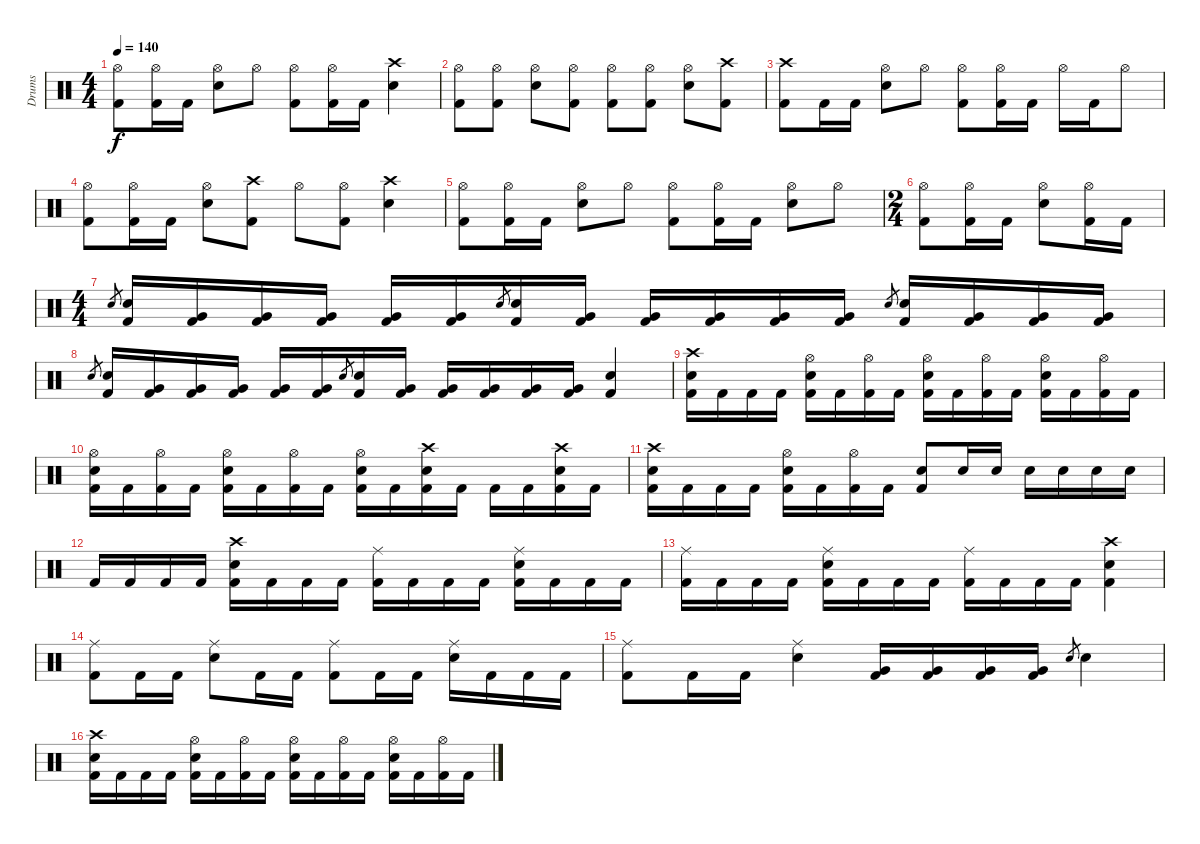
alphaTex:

\track ("Drums" "Drums") {instrument percussion}
\staff {score}
\articulation defaults
\ts (4 4)
\tempo 140
\clef neutral
\ks c
("Hi-Hat (open)" "Kick (hit) 2").8{dy f} ("Hi-Hat (open)" "Kick (hit) 2").16 "Kick (hit) 2".16 ("Hi-Hat (open)" "Electric Snare (hit)").8 "Hi-Hat (open)".8 ("Hi-Hat (open)" "Kick (hit) 2").8 ("Hi-Hat (open)" "Kick (hit) 2").16 "Kick (hit) 2".16 ("Crash high (hit)" "Electric Snare (hit)").4 |
("Hi-Hat (open)" "Kick (hit) 2").8 ("Hi-Hat (open)" "Kick (hit) 2").8 ("Hi-Hat (open)" "Electric Snare (hit)").8 ("Hi-Hat (open)" "Kick (hit) 2").8 ("Hi-Hat (open)" "Kick (hit) 2").8 ("Hi-Hat (open)" "Kick (hit) 2").8 ("Hi-Hat (open)" "Electric Snare (hit)").8 ("Crash high (hit)" "Kick (hit) 2").8 |
("Crash high (hit)" "Kick (hit) 2").8 "Kick (hit) 2".16 "Kick (hit) 2".16 ("Hi-Hat (open)" "Electric Snare (hit)").8 "Hi-Hat (open)".8 ("Hi-Hat (open)" "Kick (hit) 2").8 ("Hi-Hat (open)" "Kick (hit) 2").16 "Kick (hit) 2".16 "Hi-Hat (open)".16 "Kick (hit) 2".16 "Hi-Hat (open)".8 |
("Hi-Hat (open)" "Kick (hit) 2").8 ("Hi-Hat (open)" "Kick (hit) 2").16 "Kick (hit) 2".16 ("Hi-Hat (open)" "Electric Snare (hit)").8 ("Crash high (hit)" "Kick (hit) 2").8 "Hi-Hat (open)".8 ("Hi-Hat (open)" "Kick (hit) 2").8 ("Crash high (hit)" "Electric Snare (hit)").4 |
("Hi-Hat (open)" "Kick (hit) 2").8 ("Hi-Hat (open)" "Kick (hit) 2").16 "Kick (hit) 2".16 ("Hi-Hat (open)" "Electric Snare (hit)").8 "Hi-Hat (open)".8 ("Hi-Hat (open)" "Kick (hit) 2").8 ("Hi-Hat (open)" "Kick (hit) 2").16 "Kick (hit) 2".16 ("Hi-Hat (open)" "Electric Snare (hit)").8 "Hi-Hat (open)".8 |
\ts (2 4)
("Hi-Hat (open)" "Kick (hit) 2").8 ("Hi-Hat (open)" "Kick (hit) 2").16 "Kick (hit) 2".16 ("Hi-Hat (open)" "Electric Snare (hit)").8 ("Hi-Hat (open)" "Kick (hit) 2").16 "Kick (hit) 2".16 |
\ts (4 4)
"Electric Snare (hit)".8{gr} ("Electric Snare (hit)" "Kick (hit) 2").16 ("Very Low Tom (hit)" "Kick (hit) 2").16 ("Very Low Tom (hit)" "Kick (hit) 2").16 ("Very Low Tom (hit)" "Kick (hit) 2").16 ("Very Low Tom (hit)" "Kick (hit) 2").16 ("Very Low Tom (hit)" "Kick (hit) 2").16 "Electric Snare (hit)".8{gr} ("Electric Snare (hit)" "Kick (hit) 2").16 ("Very Low Tom (hit)" "Kick (hit) 2").16 ("Very Low Tom (hit)" "Kick (hit) 2").16 ("Very Low Tom (hit)" "Kick (hit) 2").16 ("Very Low Tom (hit)" "Kick (hit) 2").16 ("Very Low Tom (hit)" "Kick (hit) 2").16 "Electric Snare (hit)".8{gr} ("Electric Snare (hit)" "Kick (hit) 2").16 ("Very Low Tom (hit)" "Kick (hit) 2").16 ("Very Low Tom (hit)" "Kick (hit) 2").16 ("Very Low Tom (hit)" "Kick (hit) 2").16 |
"Electric Snare (hit)".8{gr} ("Electric Snare (hit)" "Kick (hit) 2").16 ("Very Low Tom (hit)" "Kick (hit) 2").16 ("Very Low Tom (hit)" "Kick (hit) 2").16 ("Very Low Tom (hit)" "Kick (hit) 2").16 ("Very Low Tom (hit)" "Kick (hit) 2").16 ("Very Low Tom (hit)" "Kick (hit) 2").16 "Electric Snare (hit)".8{gr} ("Electric Snare (hit)" "Kick (hit) 2").16 ("Very Low Tom (hit)" "Kick (hit) 2").16 ("Very Low Tom (hit)" "Kick (hit) 2").16 ("Very Low Tom (hit)" "Kick (hit) 2").16 ("Very Low Tom (hit)" "Kick (hit) 2").16 ("Very Low Tom (hit)" "Kick (hit) 2").16 ("Electric Snare (hit)" "Kick (hit) 2").4 |
("Crash high (hit)" "Electric Snare (hit)" "Kick (hit) 2").16 "Kick (hit) 2".16 "Kick (hit) 2".16 "Kick (hit) 2".16 ("Hi-Hat (open)" "Electric Snare (hit)" "Kick (hit) 2").16 "Kick (hit) 2".16 ("Hi-Hat (open)" "Kick (hit) 2").16 "Kick (hit) 2".16 ("Hi-Hat (open)" "Electric Snare (hit)" "Kick (hit) 2").16 "Kick (hit) 2".16 ("Hi-Hat (open)" "Kick (hit) 2").16 "Kick (hit) 2".16 ("Hi-Hat (open)" "Electric Snare (hit)" "Kick (hit) 2").16 "Kick (hit) 2".16 ("Hi-Hat (open)" "Kick (hit) 2").16 "Kick (hit) 2".16 |
("Hi-Hat (open)" "Electric Snare (hit)" "Kick (hit) 2").16 "Kick (hit) 2".16 ("Hi-Hat (open)" "Kick (hit) 2").16 "Kick (hit) 2".16 ("Hi-Hat (open)" "Electric Snare (hit)" "Kick (hit) 2").16 "Kick (hit) 2".16 ("Hi-Hat (open)" "Kick (hit) 2").16 "Kick (hit) 2".16 ("Hi-Hat (open)" "Electric Snare (hit)" "Kick (hit) 2").16 "Kick (hit) 2".16 ("Crash high (hit)" "Electric Snare (hit)" "Kick (hit) 2").16 "Kick (hit) 2".16 "Kick (hit) 2".16 "Kick (hit) 2".16 ("Crash high (hit)" "Electric Snare (hit)" "Kick (hit) 2").16 "Kick (hit) 2".16 |
("Crash high (hit)" "Electric Snare (hit)" "Kick (hit) 2").16 "Kick (hit) 2".16 "Kick (hit) 2".16 "Kick (hit) 2".16 ("Hi-Hat (open)" "Electric Snare (hit)" "Kick (hit) 2").16 "Kick (hit) 2".16 ("Hi-Hat (open)" "Kick (hit) 2").16 "Kick (hit) 2".16 ("Electric Snare (hit)" "Kick (hit) 2").8 "Electric Snare (hit)".16 "Electric Snare (hit)".16 "Electric Snare (hit)".16 "Electric Snare (hit)".16 "Electric Snare (hit)".16 "Electric Snare (hit)".16 |
"Kick (hit) 2".16 "Kick (hit) 2".16 "Kick (hit) 2".16 "Kick (hit) 2".16 ("Crash high (hit)" "Electric Snare (hit)" "Kick (hit) 2").16 "Kick (hit) 2".16 "Kick (hit) 2".16 "Kick (hit) 2".16 ("Ride (middle)" "Kick (hit) 2").16 "Kick (hit) 2".16 "Kick (hit) 2".16 "Kick (hit) 2".16 ("Ride (middle)" "Electric Snare (hit)" "Kick (hit) 2").16 "Kick (hit) 2".16 "Kick (hit) 2".16 "Kick (hit) 2".16 |
("Ride (middle)" "Kick (hit) 2").16 "Kick (hit) 2".16 "Kick (hit) 2".16 "Kick (hit) 2".16 ("Ride (middle)" "Electric Snare (hit)" "Kick (hit) 2").16 "Kick (hit) 2".16 "Kick (hit) 2".16 "Kick (hit) 2".16 ("Ride (middle)" "Kick (hit) 2").16 "Kick (hit) 2".16 "Kick (hit) 2".16 "Kick (hit) 2".16 ("Crash high (hit)" "Electric Snare (hit)" "Kick (hit) 2").4 |
("Ride (middle)" "Kick (hit) 2").8 "Kick (hit) 2".16 "Kick (hit) 2".16 ("Ride (middle)" "Electric Snare (hit)").8 "Kick (hit) 2".16 "Kick (hit) 2".16 ("Ride (middle)" "Kick (hit) 2").8 "Kick (hit) 2".16 "Kick (hit) 2".16 ("Ride (middle)" "Electric Snare (hit)").16 "Kick (hit) 2".16 "Kick (hit) 2".16 "Kick (hit) 2".16 |
("Ride (middle)" "Kick (hit) 2").8 "Kick (hit) 2".16 "Kick (hit) 2".16 ("Ride (middle)" "Electric Snare (hit)").4 ("Very Low Tom (hit)" "Kick (hit) 2").16 ("Very Low Tom (hit)" "Kick (hit) 2").16 ("Very Low Tom (hit)" "Kick (hit) 2").16 ("Very Low Tom (hit)" "Kick (hit) 2").16 "Electric Snare (hit)".8{gr} "Electric Snare (hit)".4 |
("Crash high (hit)" "Electric Snare (hit)" "Kick (hit) 2").16 "Kick (hit) 2".16 "Kick (hit) 2".16 "Kick (hit) 2".16 ("Hi-Hat (open)" "Electric Snare (hit)" "Kick (hit) 2").16 "Kick (hit) 2".16 ("Hi-Hat (open)" "Kick (hit) 2").16 "Kick (hit) 2".16 ("Hi-Hat (open)" "Electric Snare (hit)" "Kick (hit) 2").16 "Kick (hit) 2".16 ("Hi-Hat (open)" "Kick (hit) 2").16 "Kick (hit) 2".16 ("Hi-Hat (open)" "Electric Snare (hit)" "Kick (hit) 2").16 "Kick (hit) 2".16 ("Hi-Hat (open)" "Kick (hit) 2").16 "Kick (hit) 2".16
